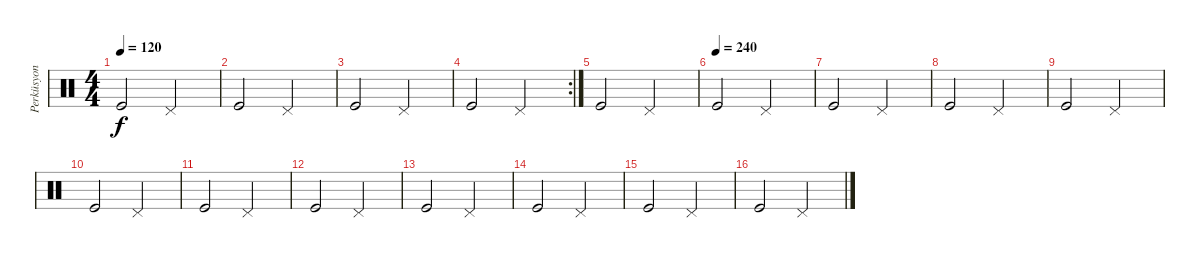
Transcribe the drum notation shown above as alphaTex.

\track ("Perküsyon" "Perküsyon") {instrument percussion}
\staff {score}
\articulation defaults
\ts (4 4)
\tempo 120
\clef neutral
\ks c "Kick (hit)".2{dy f} "Pedal Hi-Hat (hit)".2
|
"Kick (hit)".2 "Pedal Hi-Hat (hit)".2 |
"Kick (hit)".2 "Pedal Hi-Hat (hit)".2 |
\rc 2 "Kick (hit)".2 "Pedal Hi-Hat (hit)".2
|
"Kick (hit)".2 "Pedal Hi-Hat (hit)".2 |
\tempo (240)
"Kick (hit)".2 "Pedal Hi-Hat (hit)".2 |
"Kick (hit)".2 "Pedal Hi-Hat (hit)".2 |
"Kick (hit)".2 "Pedal Hi-Hat (hit)".2 |
"Kick (hit)".2 "Pedal Hi-Hat (hit)".2 |
"Kick (hit)".2 "Pedal Hi-Hat (hit)".2 |
"Kick (hit)".2 "Pedal Hi-Hat (hit)".2 |
"Kick (hit)".2 "Pedal Hi-Hat (hit)".2 |
"Kick (hit)".2 "Pedal Hi-Hat (hit)".2 |
"Kick (hit)".2 "Pedal Hi-Hat (hit)".2 |
"Kick (hit)".2 "Pedal Hi-Hat (hit)".2 |
"Kick (hit)".2 "Pedal Hi-Hat (hit)".2
